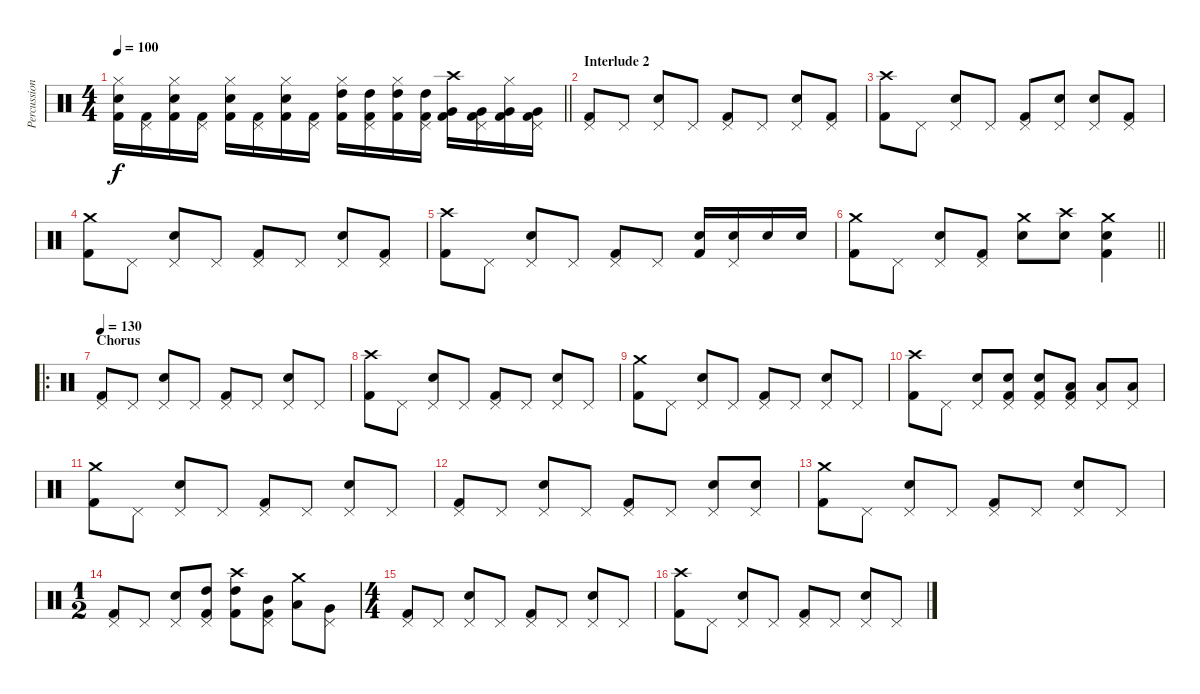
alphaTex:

\track ("Percussion" "Percussion") {instrument percussion}
\staff {score}
\articulation defaults
\ts (4 4)
\tempo 100
\clef neutral
\barLineRight lightlight
\ks c
("Hi-Hat (closed)" "Snare (hit) 2" "Kick (hit) 2").16{dy f} ("Pedal Hi-Hat (hit)" "Kick (hit) 2").16 ("Hi-Hat (closed)" "Snare (hit) 2" "Kick (hit) 2").16 ("Pedal Hi-Hat (hit)" "Kick (hit) 2").16 ("Hi-Hat (closed)" "Snare (hit) 2" "Kick (hit) 2").16 ("Pedal Hi-Hat (hit)" "Kick (hit) 2").16 ("Hi-Hat (closed)" "Snare (hit) 2" "Kick (hit) 2").16 ("Pedal Hi-Hat (hit)" "Kick (hit) 2").16 ("Hi-Hat (closed)" "High Tom (hit)" "Kick (hit) 2").16 ("Pedal Hi-Hat (hit)" "High Tom (hit)" "Kick (hit) 2").16 ("Hi-Hat (closed)" "High Tom (hit)" "Kick (hit) 2").16 ("Pedal Hi-Hat (hit)" "High Tom (hit)" "Kick (hit) 2").16 ("Crash high (hit)" "Very Low Tom (hit)" "Kick (hit) 2").16 ("Pedal Hi-Hat (hit)" "Very Low Tom (hit)" "Kick (hit) 2").16 ("Hi-Hat (closed)" "Very Low Tom (hit)" "Kick (hit) 2").16 ("Pedal Hi-Hat (hit)" "Very Low Tom (hit)" "Kick (hit) 2").16 |
\section ("" "Interlude 2")
("Pedal Hi-Hat (hit)" "Kick (hit) 2").8 "Pedal Hi-Hat (hit)".8 ("Pedal Hi-Hat (hit)" "Snare (hit) 2").8 "Pedal Hi-Hat (hit)".8 ("Pedal Hi-Hat (hit)" "Kick (hit) 2").8 "Pedal Hi-Hat (hit)".8 ("Pedal Hi-Hat (hit)" "Snare (hit) 2").8 ("Pedal Hi-Hat (hit)" "Kick (hit) 2").8 |
("Crash high (hit)" "Kick (hit) 2").8 "Pedal Hi-Hat (hit)".8 ("Pedal Hi-Hat (hit)" "Snare (hit) 2").8 "Pedal Hi-Hat (hit)".8 ("Pedal Hi-Hat (hit)" "Kick (hit) 2").8 ("Pedal Hi-Hat (hit)" "Snare (hit) 2").8 ("Pedal Hi-Hat (hit)" "Snare (hit) 2").8 ("Pedal Hi-Hat (hit)" "Kick (hit) 2").8 |
("Crash medium (hit)" "Kick (hit) 2").8 "Pedal Hi-Hat (hit)".8 ("Pedal Hi-Hat (hit)" "Snare (hit) 2").8 "Pedal Hi-Hat (hit)".8 ("Pedal Hi-Hat (hit)" "Kick (hit) 2").8 "Pedal Hi-Hat (hit)".8 ("Pedal Hi-Hat (hit)" "Snare (hit) 2").8 ("Pedal Hi-Hat (hit)" "Kick (hit) 2").8 |
("Crash high (hit)" "Kick (hit) 2").8 "Pedal Hi-Hat (hit)".8 ("Pedal Hi-Hat (hit)" "Snare (hit) 2").8 "Pedal Hi-Hat (hit)".8 ("Pedal Hi-Hat (hit)" "Kick (hit) 2").8 "Pedal Hi-Hat (hit)".8 ("Snare (hit) 2" "Kick (hit) 2").16 ("Pedal Hi-Hat (hit)" "Snare (hit) 2").16 "Snare (hit) 2".16 "Snare (hit) 2".16 |
\barLineRight lightlight
("Crash medium (hit)" "Kick (hit) 2").8 "Pedal Hi-Hat (hit)".8 ("Pedal Hi-Hat (hit)" "Snare (hit) 2").8 ("Pedal Hi-Hat (hit)" "Kick (hit) 2").8 ("Crash medium (hit)" "Snare (hit) 2").8 ("Crash high (hit)" "Snare (hit) 2").8 ("Crash medium (hit)" "Snare (hit) 2" "Kick (hit) 2").4 |
\ro
\section ("" "Chorus")
\tempo 130
("Pedal Hi-Hat (hit)" "Kick (hit) 2").8 "Pedal Hi-Hat (hit)".8 ("Pedal Hi-Hat (hit)" "Snare (hit) 2").8 "Pedal Hi-Hat (hit)".8 ("Pedal Hi-Hat (hit)" "Kick (hit) 2").8 "Pedal Hi-Hat (hit)".8 ("Pedal Hi-Hat (hit)" "Snare (hit) 2").8 "Pedal Hi-Hat (hit)".8 |
("Crash high (hit)" "Kick (hit) 2").8 "Pedal Hi-Hat (hit)".8 ("Pedal Hi-Hat (hit)" "Snare (hit) 2").8 "Pedal Hi-Hat (hit)".8 ("Pedal Hi-Hat (hit)" "Kick (hit) 2").8 "Pedal Hi-Hat (hit)".8 ("Pedal Hi-Hat (hit)" "Snare (hit) 2").8 "Pedal Hi-Hat (hit)".8 |
("Crash medium (hit)" "Kick (hit) 2").8 "Pedal Hi-Hat (hit)".8 ("Pedal Hi-Hat (hit)" "Snare (hit) 2").8 "Pedal Hi-Hat (hit)".8 ("Pedal Hi-Hat (hit)" "Kick (hit) 2").8 "Pedal Hi-Hat (hit)".8 ("Pedal Hi-Hat (hit)" "Snare (hit) 2").8 "Pedal Hi-Hat (hit)".8 |
("Crash high (hit)" "Kick (hit) 2").8 "Pedal Hi-Hat (hit)".8 ("Pedal Hi-Hat (hit)" "Snare (hit) 2").8 ("Pedal Hi-Hat (hit)" "Snare (hit) 2" "Kick (hit) 2").8 ("Pedal Hi-Hat (hit)" "Snare (hit) 2" "Kick (hit) 2").8 ("Pedal Hi-Hat (hit)" "Low Tom (hit)" "Kick (hit) 2").8 ("Pedal Hi-Hat (hit)" "Low Tom (hit)").8 ("Pedal Hi-Hat (hit)" "Low Tom (hit)").8 |
("Crash medium (hit)" "Kick (hit) 2").8 "Pedal Hi-Hat (hit)".8 ("Pedal Hi-Hat (hit)" "Snare (hit) 2").8 "Pedal Hi-Hat (hit)".8 ("Pedal Hi-Hat (hit)" "Kick (hit) 2").8 "Pedal Hi-Hat (hit)".8 ("Pedal Hi-Hat (hit)" "Snare (hit) 2").8 "Pedal Hi-Hat (hit)".8 |
("Pedal Hi-Hat (hit)" "Kick (hit) 2").8 "Pedal Hi-Hat (hit)".8 ("Pedal Hi-Hat (hit)" "Snare (hit) 2").8 "Pedal Hi-Hat (hit)".8 ("Pedal Hi-Hat (hit)" "Kick (hit) 2").8 "Pedal Hi-Hat (hit)".8 ("Pedal Hi-Hat (hit)" "Snare (hit) 2").8 ("Pedal Hi-Hat (hit)" "Snare (hit) 2").8 |
("Crash medium (hit)" "Kick (hit) 2").8 "Pedal Hi-Hat (hit)".8 ("Pedal Hi-Hat (hit)" "Snare (hit) 2").8 "Pedal Hi-Hat (hit)".8 ("Pedal Hi-Hat (hit)" "Kick (hit) 2").8 "Pedal Hi-Hat (hit)".8 ("Pedal Hi-Hat (hit)" "Snare (hit) 2").8 "Pedal Hi-Hat (hit)".8 |
\ts (1 2)
("Pedal Hi-Hat (hit)" "Kick (hit) 2").8 "Pedal Hi-Hat (hit)".8 ("Pedal Hi-Hat (hit)" "Snare (hit) 2").8 ("Pedal Hi-Hat (hit)" "High Tom (hit)" "Kick (hit) 2").8 ("Crash high (hit)" "High Tom (hit)" "Kick (hit) 2").8 ("Pedal Hi-Hat (hit)" "Mid Tom (hit)" "Kick (hit) 2").8 ("Crash medium (hit)" "Low Tom (hit)").8 ("Pedal Hi-Hat (hit)" "Very Low Tom (hit)").8 |
\ts (4 4)
("Pedal Hi-Hat (hit)" "Kick (hit) 2").8 "Pedal Hi-Hat (hit)".8 ("Pedal Hi-Hat (hit)" "Snare (hit) 2").8 "Pedal Hi-Hat (hit)".8 ("Pedal Hi-Hat (hit)" "Kick (hit) 2").8 "Pedal Hi-Hat (hit)".8 ("Pedal Hi-Hat (hit)" "Snare (hit) 2").8 "Pedal Hi-Hat (hit)".8 |
("Crash high (hit)" "Kick (hit) 2").8 "Pedal Hi-Hat (hit)".8 ("Pedal Hi-Hat (hit)" "Snare (hit) 2").8 "Pedal Hi-Hat (hit)".8 ("Pedal Hi-Hat (hit)" "Kick (hit) 2").8 "Pedal Hi-Hat (hit)".8 ("Pedal Hi-Hat (hit)" "Snare (hit) 2").8 "Pedal Hi-Hat (hit)".8
